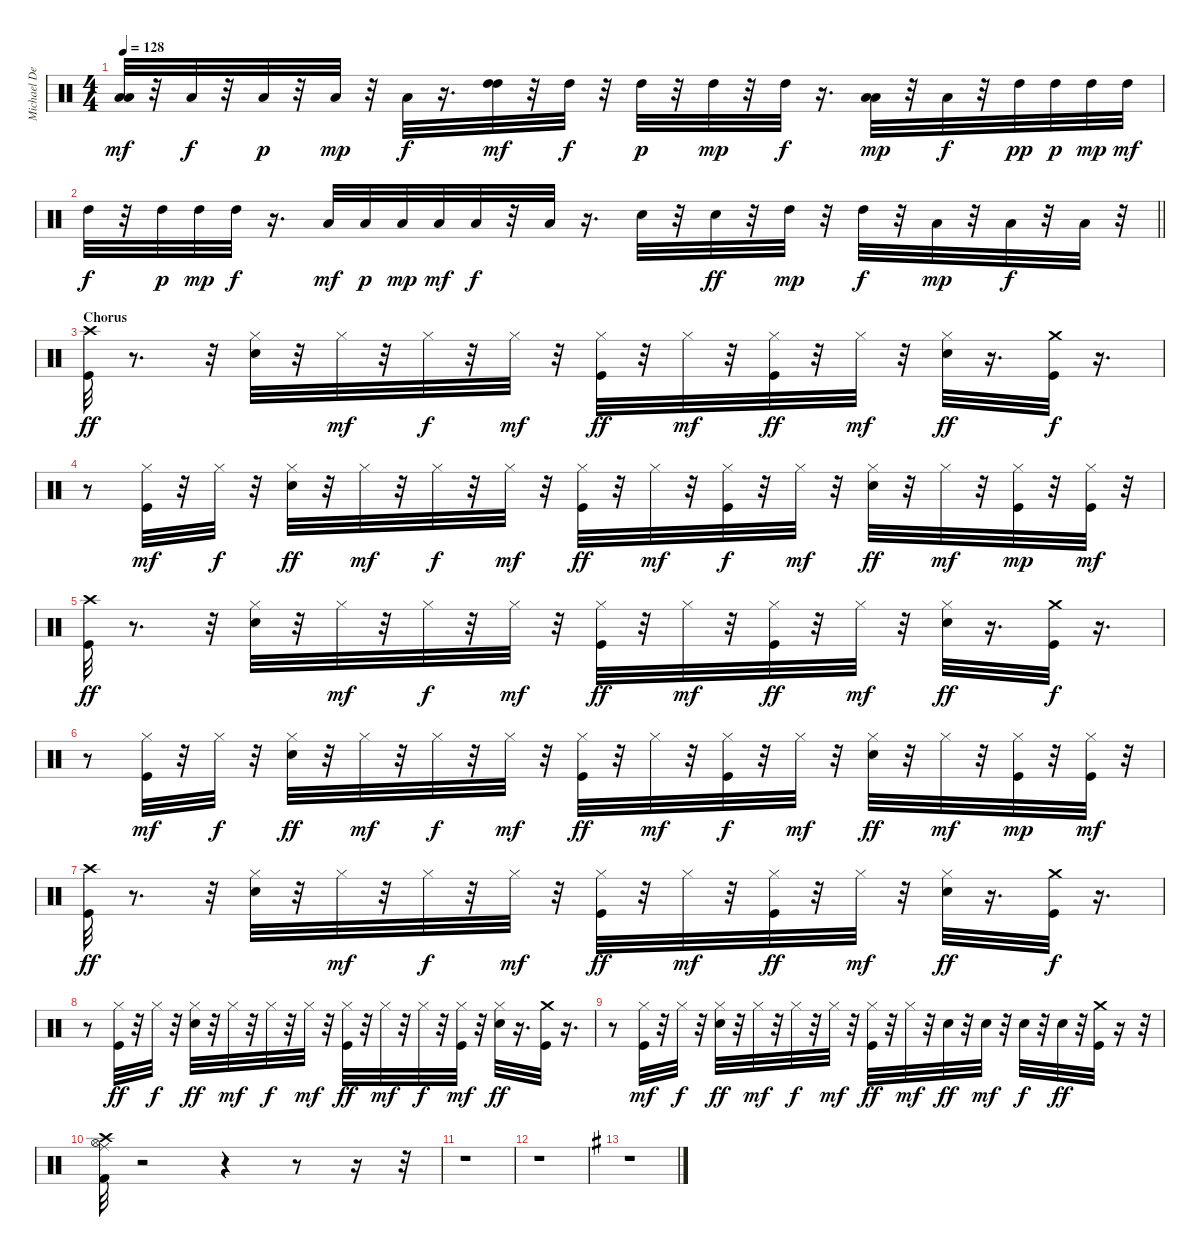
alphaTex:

\track ("Michael DeRosier" "Michael De") {instrument percussion}
\staff {score}
\articulation defaults
\ts (4 4)
\tempo 128
\clef neutral
\ks c
("Low Tom (hit)" "Low Tom (hit)").32{dy mf} r.32 "Low Tom (hit)".32{dy f} r.32 "Low Tom (hit)".32{dy p} r.32 "Low Tom (hit)".32{dy mp} r.32 "Low Tom (hit)".32{dy f} r.16{d} ("High Tom (hit)" "High Tom (hit)").32{dy mf} r.32 "High Tom (hit)".32{dy f} r.32 "High Tom (hit)".32{dy p} r.32 "High Tom (hit)".32{dy mp} r.32 "High Tom (hit)".32{dy f} r.16{d} ("Low Floor Tom (hit)" "Low Floor Tom (hit)").32{dy mp} r.32 "Low Floor Tom (hit)".32{dy f} r.32 "High Tom (hit)".32{dy pp} "High Tom (hit)".32{dy p} "High Tom (hit)".32{dy mp} "High Tom (hit)".32{dy mf} |
\barLineRight lightlight "High Tom (hit)".32{dy f}
r.32 "High Tom (hit)".32{dy p} "High Tom (hit)".32{dy mp} "High Tom (hit)".32{dy f} r.16{d} "Low Tom (hit)".32{dy mf} "Low Tom (hit)".32{dy p} "Low Tom (hit)".32{dy mp} "Low Tom (hit)".32{dy mf} "Low Tom (hit)".32{dy f} r.32 "Low Floor Tom (hit)".32 r.16{d} "Snare (hit) 2".32 r.32 "Snare (hit) 2".32{dy ff} r.32 "High Tom (hit)".32{dy mp} r.32 "High Tom (hit)".32{dy f} r.32 "Low Tom (hit)".32{dy mp} r.32 "Low Tom (hit)".32{dy f} r.32 "Low Floor Tom (hit)".32 r.32 |
\section ("" "Chorus")
("Kick (hit)" "Crash high (hit)").32{dy ff} r.8{d} r.32 ("Snare (hit) 2" "Hi-Hat (closed)").32 r.32 "Hi-Hat (closed)".32{dy mf} r.32 "Hi-Hat (closed)".32{dy f} r.32 "Hi-Hat (closed)".32{dy mf} r.32 ("Hi-Hat (closed)" "Kick (hit)").32{dy ff} r.32 "Hi-Hat (closed)".32{dy mf} r.32 ("Hi-Hat (closed)" "Kick (hit)").32{dy ff} r.32 "Hi-Hat (closed)".32{dy mf} r.32 ("Snare (hit) 2" "Hi-Hat (closed)").32{dy ff} r.16{d} ("Kick (hit)" "Crash medium (hit)").32{dy f} r.16{d} |
r.8 ("Hi-Hat (closed)" "Kick (hit)").32{dy mf} r.32 "Hi-Hat (closed)".32{dy f} r.32 ("Snare (hit) 2" "Hi-Hat (closed)").32{dy ff} r.32 "Hi-Hat (closed)".32{dy mf} r.32 "Hi-Hat (closed)".32{dy f} r.32 "Hi-Hat (closed)".32{dy mf} r.32 ("Hi-Hat (closed)" "Kick (hit)").32{dy ff} r.32 "Hi-Hat (closed)".32{dy mf} r.32 ("Hi-Hat (closed)" "Kick (hit)").32{dy f} r.32 "Hi-Hat (closed)".32{dy mf} r.32 ("Snare (hit) 2" "Hi-Hat (closed)").32{dy ff} r.32 "Hi-Hat (closed)".32{dy mf} r.32 ("Hi-Hat (closed)" "Kick (hit)").32{dy mp} r.32 ("Hi-Hat (closed)" "Kick (hit)").32{dy mf} r.32 |
("Kick (hit)" "Crash high (hit)").32{dy ff} r.8{d} r.32 ("Snare (hit) 2" "Hi-Hat (closed)").32 r.32 "Hi-Hat (closed)".32{dy mf} r.32 "Hi-Hat (closed)".32{dy f} r.32 "Hi-Hat (closed)".32{dy mf} r.32 ("Kick (hit)" "Hi-Hat (closed)").32{dy ff} r.32 "Hi-Hat (closed)".32{dy mf} r.32 ("Hi-Hat (closed)" "Kick (hit)").32{dy ff} r.32 "Hi-Hat (closed)".32{dy mf} r.32 ("Snare (hit) 2" "Hi-Hat (closed)").32{dy ff} r.16{d} ("Kick (hit)" "Crash medium (hit)").32{dy f} r.16{d} |
r.8 ("Hi-Hat (closed)" "Kick (hit)").32{dy mf} r.32 "Hi-Hat (closed)".32{dy f} r.32 ("Snare (hit) 2" "Hi-Hat (closed)").32{dy ff} r.32 "Hi-Hat (closed)".32{dy mf} r.32 "Hi-Hat (closed)".32{dy f} r.32 "Hi-Hat (closed)".32{dy mf} r.32 ("Hi-Hat (closed)" "Kick (hit)").32{dy ff} r.32 "Hi-Hat (closed)".32{dy mf} r.32 ("Kick (hit)" "Hi-Hat (closed)").32{dy f} r.32 "Hi-Hat (closed)".32{dy mf} r.32 ("Snare (hit) 2" "Hi-Hat (closed)").32{dy ff} r.32 "Hi-Hat (closed)".32{dy mf} r.32 ("Kick (hit)" "Hi-Hat (closed)").32{dy mp} r.32 ("Hi-Hat (closed)" "Kick (hit)").32{dy mf} r.32 |
("Kick (hit)" "Crash high (hit)").32{dy ff} r.8{d} r.32 ("Snare (hit) 2" "Hi-Hat (closed)").32 r.32 "Hi-Hat (closed)".32{dy mf} r.32 "Hi-Hat (closed)".32{dy f} r.32 "Hi-Hat (closed)".32{dy mf} r.32 ("Hi-Hat (closed)" "Kick (hit)").32{dy ff} r.32 "Hi-Hat (closed)".32{dy mf} r.32 ("Kick (hit)" "Hi-Hat (closed)").32{dy ff} r.32 "Hi-Hat (closed)".32{dy mf} r.32 ("Snare (hit) 2" "Hi-Hat (closed)").32{dy ff} r.16{d} ("Kick (hit)" "Crash medium (hit)").32{dy f} r.16{d} |
r.8 ("Hi-Hat (closed)" "Kick (hit)").32{dy ff} r.32 "Hi-Hat (closed)".32{dy f} r.32 ("Snare (hit) 2" "Hi-Hat (closed)").32{dy ff} r.32 "Hi-Hat (closed)".32{dy mf} r.32 "Hi-Hat (closed)".32{dy f} r.32 "Hi-Hat (closed)".32{dy mf} r.32 ("Hi-Hat (closed)" "Kick (hit)").32{dy ff} r.32 "Hi-Hat (closed)".32{dy mf} r.32 "Hi-Hat (closed)".32{dy f} r.32 ("Kick (hit)" "Hi-Hat (closed)").32{dy mf} r.32 ("Snare (hit) 2" "Hi-Hat (closed)").32{dy ff} r.16{d} ("Kick (hit)" "Crash medium (hit)").32 r.16{d} |
r.8 ("Hi-Hat (closed)" "Kick (hit)").32{dy mf} r.32 "Hi-Hat (closed)".32{dy f} r.32 ("Snare (hit) 2" "Hi-Hat (closed)").32{dy ff} r.32 "Hi-Hat (closed)".32{dy mf} r.32 "Hi-Hat (closed)".32{dy f} r.32 "Hi-Hat (closed)".32{dy mf} r.32 ("Hi-Hat (closed)" "Kick (hit)").32{dy ff} r.32 "Hi-Hat (closed)".32{dy mf} r.32 "Snare (hit) 2".32{dy ff} r.32 "Snare (hit) 2".32{dy mf} r.32 "Snare (hit) 2".32{dy f} r.32 "Snare (hit) 2".32{dy ff} r.32 ("Kick (hit)" "Crash medium (hit)").32 r.16 r.32 |
("Kick (hit) 2" "Crash high (hit)" "Hi-Hat (open)" "Ride (middle)").32 r.2 r.4 r.8 r.16 r.32 |
r.1 |
r.1 |
\ks g
r.1
